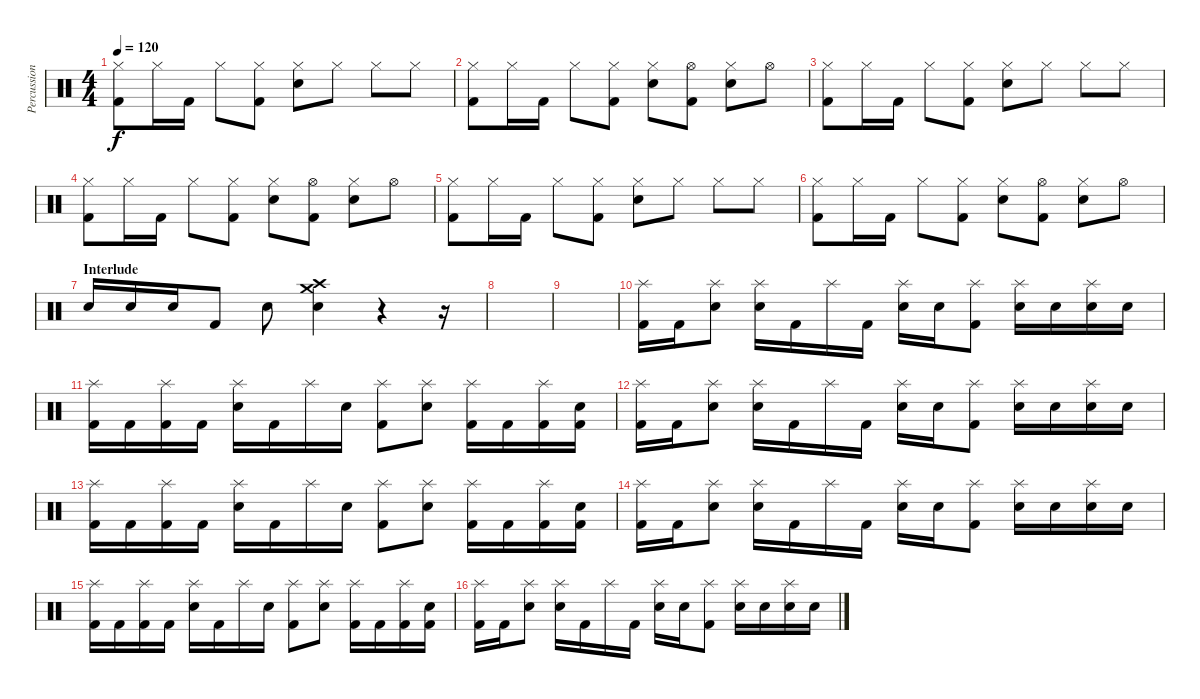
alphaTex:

\track ("Percussion" "Percussion") {instrument percussion}
\staff {score}
\articulation defaults
\ts (4 4)
\tempo 120
\clef neutral
\ks c
("Hi-Hat (closed)" "Kick (hit) 2").8{dy f} "Hi-Hat (closed)".16 "Kick (hit) 2".16 "Hi-Hat (closed)".8 ("Hi-Hat (closed)" "Kick (hit) 2").8 ("Hi-Hat (closed)" "Snare (hit) 2").8 "Hi-Hat (closed)".8 "Hi-Hat (closed)".8 "Hi-Hat (closed)".8 |
("Hi-Hat (closed)" "Kick (hit) 2").8 "Hi-Hat (closed)".16 "Kick (hit) 2".16 "Hi-Hat (closed)".8 ("Hi-Hat (closed)" "Kick (hit) 2").8 ("Hi-Hat (closed)" "Snare (hit) 2").8 ("Hi-Hat (open)" "Kick (hit) 2").8 ("Hi-Hat (closed)" "Snare (hit) 2").8 "Hi-Hat (open)".8 |
("Hi-Hat (closed)" "Kick (hit) 2").8 "Hi-Hat (closed)".16 "Kick (hit) 2".16 "Hi-Hat (closed)".8 ("Hi-Hat (closed)" "Kick (hit) 2").8 ("Hi-Hat (closed)" "Snare (hit) 2").8 "Hi-Hat (closed)".8 "Hi-Hat (closed)".8 "Hi-Hat (closed)".8 |
("Hi-Hat (closed)" "Kick (hit) 2").8 "Hi-Hat (closed)".16 "Kick (hit) 2".16 "Hi-Hat (closed)".8 ("Hi-Hat (closed)" "Kick (hit) 2").8 ("Hi-Hat (closed)" "Snare (hit) 2").8 ("Hi-Hat (open)" "Kick (hit) 2").8 ("Hi-Hat (closed)" "Snare (hit) 2").8 "Hi-Hat (open)".8 |
("Hi-Hat (closed)" "Kick (hit) 2").8 "Hi-Hat (closed)".16 "Kick (hit) 2".16 "Hi-Hat (closed)".8 ("Hi-Hat (closed)" "Kick (hit) 2").8 ("Hi-Hat (closed)" "Snare (hit) 2").8 "Hi-Hat (closed)".8 "Hi-Hat (closed)".8 "Hi-Hat (closed)".8 |
("Hi-Hat (closed)" "Kick (hit) 2").8 "Hi-Hat (closed)".16 "Kick (hit) 2".16 "Hi-Hat (closed)".8 ("Hi-Hat (closed)" "Kick (hit) 2").8 ("Hi-Hat (closed)" "Snare (hit) 2").8 ("Hi-Hat (open)" "Kick (hit) 2").8 ("Hi-Hat (closed)" "Snare (hit) 2").8 "Hi-Hat (open)".8 |
\section ("" "Interlude")
"Snare (hit) 2".16 "Snare (hit) 2".16 "Snare (hit) 2".16 "Kick (hit) 2".8 "Snare (hit) 2".8 ("Crash medium (hit)" "Crash high (hit)" "Snare (hit) 2").4 r.4 r.16 |
|
|
("Splash (hit)" "Kick (hit) 2").16 "Kick (hit) 2".16 ("Splash (hit)" "Snare (hit) 2").8 ("Splash (hit)" "Snare (hit) 2").16 "Kick (hit) 2".16 "Splash (hit)".16 "Kick (hit) 2".16 ("Splash (hit)" "Snare (hit) 2").16 "Snare (hit) 2".16 ("Splash (hit)" "Kick (hit) 2").8 ("Splash (hit)" "Snare (hit) 2").16 "Snare (hit) 2".16 ("Splash (hit)" "Snare (hit) 2").16 "Snare (hit) 2".16 |
("Splash (hit)" "Kick (hit) 2").16 "Kick (hit) 2".16 ("Splash (hit)" "Kick (hit) 2").16 "Kick (hit) 2".16 ("Splash (hit)" "Snare (hit) 2").16 "Kick (hit) 2".16 "Splash (hit)".16 "Snare (hit) 2".16 ("Splash (hit)" "Kick (hit) 2").8 ("Splash (hit)" "Snare (hit) 2").8 ("Splash (hit)" "Kick (hit) 2").16 "Kick (hit) 2".16 ("Splash (hit)" "Kick (hit) 2").16 ("Snare (hit) 2" "Kick (hit) 2").16 |
("Splash (hit)" "Kick (hit) 2").16 "Kick (hit) 2".16 ("Splash (hit)" "Snare (hit) 2").8 ("Splash (hit)" "Snare (hit) 2").16 "Kick (hit) 2".16 "Splash (hit)".16 "Kick (hit) 2".16 ("Splash (hit)" "Snare (hit) 2").16 "Snare (hit) 2".16 ("Splash (hit)" "Kick (hit) 2").8 ("Splash (hit)" "Snare (hit) 2").16 "Snare (hit) 2".16 ("Splash (hit)" "Snare (hit) 2").16 "Snare (hit) 2".16 |
("Splash (hit)" "Kick (hit) 2").16 "Kick (hit) 2".16 ("Splash (hit)" "Kick (hit) 2").16 "Kick (hit) 2".16 ("Splash (hit)" "Snare (hit) 2").16 "Kick (hit) 2".16 "Splash (hit)".16 "Snare (hit) 2".16 ("Splash (hit)" "Kick (hit) 2").8 ("Splash (hit)" "Snare (hit) 2").8 ("Splash (hit)" "Kick (hit) 2").16 "Kick (hit) 2".16 ("Splash (hit)" "Kick (hit) 2").16 ("Snare (hit) 2" "Kick (hit) 2").16 |
("Splash (hit)" "Kick (hit) 2").16 "Kick (hit) 2".16 ("Splash (hit)" "Snare (hit) 2").8 ("Splash (hit)" "Snare (hit) 2").16 "Kick (hit) 2".16 "Splash (hit)".16 "Kick (hit) 2".16 ("Splash (hit)" "Snare (hit) 2").16 "Snare (hit) 2".16 ("Splash (hit)" "Kick (hit) 2").8 ("Splash (hit)" "Snare (hit) 2").16 "Snare (hit) 2".16 ("Splash (hit)" "Snare (hit) 2").16 "Snare (hit) 2".16 |
("Splash (hit)" "Kick (hit) 2").16 "Kick (hit) 2".16 ("Splash (hit)" "Kick (hit) 2").16 "Kick (hit) 2".16 ("Splash (hit)" "Snare (hit) 2").16 "Kick (hit) 2".16 "Splash (hit)".16 "Snare (hit) 2".16 ("Splash (hit)" "Kick (hit) 2").8 ("Splash (hit)" "Snare (hit) 2").8 ("Splash (hit)" "Kick (hit) 2").16 "Kick (hit) 2".16 ("Splash (hit)" "Kick (hit) 2").16 ("Snare (hit) 2" "Kick (hit) 2").16 |
("Splash (hit)" "Kick (hit) 2").16 "Kick (hit) 2".16 ("Splash (hit)" "Snare (hit) 2").8 ("Splash (hit)" "Snare (hit) 2").16 "Kick (hit) 2".16 "Splash (hit)".16 "Kick (hit) 2".16 ("Splash (hit)" "Snare (hit) 2").16 "Snare (hit) 2".16 ("Splash (hit)" "Kick (hit) 2").8 ("Splash (hit)" "Snare (hit) 2").16 "Snare (hit) 2".16 ("Splash (hit)" "Snare (hit) 2").16 "Snare (hit) 2".16
